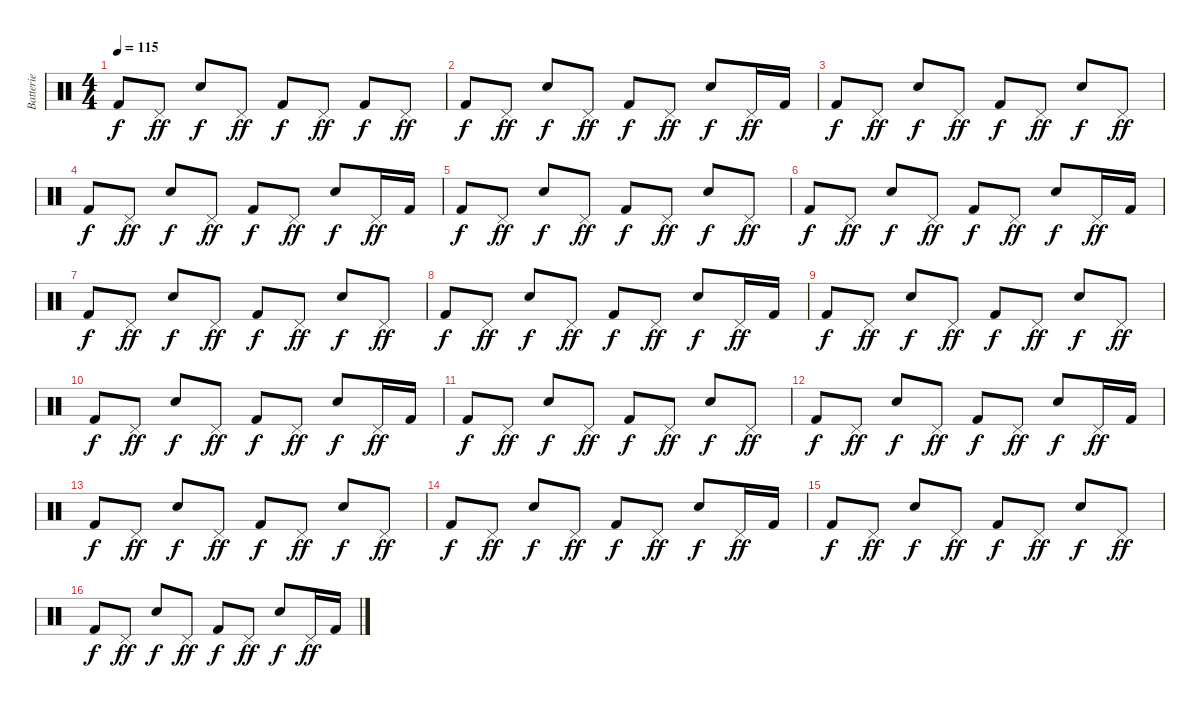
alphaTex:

\track ("Batterie" "Batterie") {instrument percussion}
\staff {score}
\articulation defaults
\ts (4 4)
\tempo 115
\clef neutral
\ks c "Kick (hit) 2".8{dy f} "Pedal Hi-Hat (hit)".8{dy ff} "Electric Snare (hit)".8{dy f} "Pedal Hi-Hat (hit)".8{dy ff} "Kick (hit) 2".8{dy f} "Pedal Hi-Hat (hit)".8{dy ff} "Kick (hit) 2".8{dy f} "Pedal Hi-Hat (hit)".8{dy ff}
|
"Kick (hit) 2".8{dy f} "Pedal Hi-Hat (hit)".8{dy ff} "Electric Snare (hit)".8{dy f} "Pedal Hi-Hat (hit)".8{dy ff} "Kick (hit) 2".8{dy f} "Pedal Hi-Hat (hit)".8{dy ff} "Electric Snare (hit)".8{dy f} "Pedal Hi-Hat (hit)".16{dy ff} "Kick (hit) 2".16 |
"Kick (hit) 2".8{dy f} "Pedal Hi-Hat (hit)".8{dy ff} "Electric Snare (hit)".8{dy f} "Pedal Hi-Hat (hit)".8{dy ff} "Kick (hit) 2".8{dy f} "Pedal Hi-Hat (hit)".8{dy ff} "Electric Snare (hit)".8{dy f} "Pedal Hi-Hat (hit)".8{dy ff} |
"Kick (hit) 2".8{dy f} "Pedal Hi-Hat (hit)".8{dy ff} "Electric Snare (hit)".8{dy f} "Pedal Hi-Hat (hit)".8{dy ff} "Kick (hit) 2".8{dy f} "Pedal Hi-Hat (hit)".8{dy ff} "Electric Snare (hit)".8{dy f} "Pedal Hi-Hat (hit)".16{dy ff} "Kick (hit) 2".16 |
"Kick (hit) 2".8{dy f} "Pedal Hi-Hat (hit)".8{dy ff} "Electric Snare (hit)".8{dy f} "Pedal Hi-Hat (hit)".8{dy ff} "Kick (hit) 2".8{dy f} "Pedal Hi-Hat (hit)".8{dy ff} "Electric Snare (hit)".8{dy f} "Pedal Hi-Hat (hit)".8{dy ff} |
"Kick (hit) 2".8{dy f} "Pedal Hi-Hat (hit)".8{dy ff} "Electric Snare (hit)".8{dy f} "Pedal Hi-Hat (hit)".8{dy ff} "Kick (hit) 2".8{dy f} "Pedal Hi-Hat (hit)".8{dy ff} "Electric Snare (hit)".8{dy f} "Pedal Hi-Hat (hit)".16{dy ff} "Kick (hit) 2".16 |
"Kick (hit) 2".8{dy f} "Pedal Hi-Hat (hit)".8{dy ff} "Electric Snare (hit)".8{dy f} "Pedal Hi-Hat (hit)".8{dy ff} "Kick (hit) 2".8{dy f} "Pedal Hi-Hat (hit)".8{dy ff} "Electric Snare (hit)".8{dy f} "Pedal Hi-Hat (hit)".8{dy ff} |
"Kick (hit) 2".8{dy f} "Pedal Hi-Hat (hit)".8{dy ff} "Electric Snare (hit)".8{dy f} "Pedal Hi-Hat (hit)".8{dy ff} "Kick (hit) 2".8{dy f} "Pedal Hi-Hat (hit)".8{dy ff} "Electric Snare (hit)".8{dy f} "Pedal Hi-Hat (hit)".16{dy ff} "Kick (hit) 2".16 |
"Kick (hit) 2".8{dy f} "Pedal Hi-Hat (hit)".8{dy ff} "Electric Snare (hit)".8{dy f} "Pedal Hi-Hat (hit)".8{dy ff} "Kick (hit) 2".8{dy f} "Pedal Hi-Hat (hit)".8{dy ff} "Electric Snare (hit)".8{dy f} "Pedal Hi-Hat (hit)".8{dy ff} |
"Kick (hit) 2".8{dy f} "Pedal Hi-Hat (hit)".8{dy ff} "Electric Snare (hit)".8{dy f} "Pedal Hi-Hat (hit)".8{dy ff} "Kick (hit) 2".8{dy f} "Pedal Hi-Hat (hit)".8{dy ff} "Electric Snare (hit)".8{dy f} "Pedal Hi-Hat (hit)".16{dy ff} "Kick (hit) 2".16 |
"Kick (hit) 2".8{dy f} "Pedal Hi-Hat (hit)".8{dy ff} "Electric Snare (hit)".8{dy f} "Pedal Hi-Hat (hit)".8{dy ff} "Kick (hit) 2".8{dy f} "Pedal Hi-Hat (hit)".8{dy ff} "Electric Snare (hit)".8{dy f} "Pedal Hi-Hat (hit)".8{dy ff} |
"Kick (hit) 2".8{dy f} "Pedal Hi-Hat (hit)".8{dy ff} "Electric Snare (hit)".8{dy f} "Pedal Hi-Hat (hit)".8{dy ff} "Kick (hit) 2".8{dy f} "Pedal Hi-Hat (hit)".8{dy ff} "Electric Snare (hit)".8{dy f} "Pedal Hi-Hat (hit)".16{dy ff} "Kick (hit) 2".16 |
"Kick (hit) 2".8{dy f} "Pedal Hi-Hat (hit)".8{dy ff} "Electric Snare (hit)".8{dy f} "Pedal Hi-Hat (hit)".8{dy ff} "Kick (hit) 2".8{dy f} "Pedal Hi-Hat (hit)".8{dy ff} "Electric Snare (hit)".8{dy f} "Pedal Hi-Hat (hit)".8{dy ff} |
"Kick (hit) 2".8{dy f} "Pedal Hi-Hat (hit)".8{dy ff} "Electric Snare (hit)".8{dy f} "Pedal Hi-Hat (hit)".8{dy ff} "Kick (hit) 2".8{dy f} "Pedal Hi-Hat (hit)".8{dy ff} "Electric Snare (hit)".8{dy f} "Pedal Hi-Hat (hit)".16{dy ff} "Kick (hit) 2".16 |
"Kick (hit) 2".8{dy f} "Pedal Hi-Hat (hit)".8{dy ff} "Electric Snare (hit)".8{dy f} "Pedal Hi-Hat (hit)".8{dy ff} "Kick (hit) 2".8{dy f} "Pedal Hi-Hat (hit)".8{dy ff} "Electric Snare (hit)".8{dy f} "Pedal Hi-Hat (hit)".8{dy ff} |
"Kick (hit) 2".8{dy f} "Pedal Hi-Hat (hit)".8{dy ff} "Electric Snare (hit)".8{dy f} "Pedal Hi-Hat (hit)".8{dy ff} "Kick (hit) 2".8{dy f} "Pedal Hi-Hat (hit)".8{dy ff} "Electric Snare (hit)".8{dy f} "Pedal Hi-Hat (hit)".16{dy ff} "Kick (hit) 2".16
